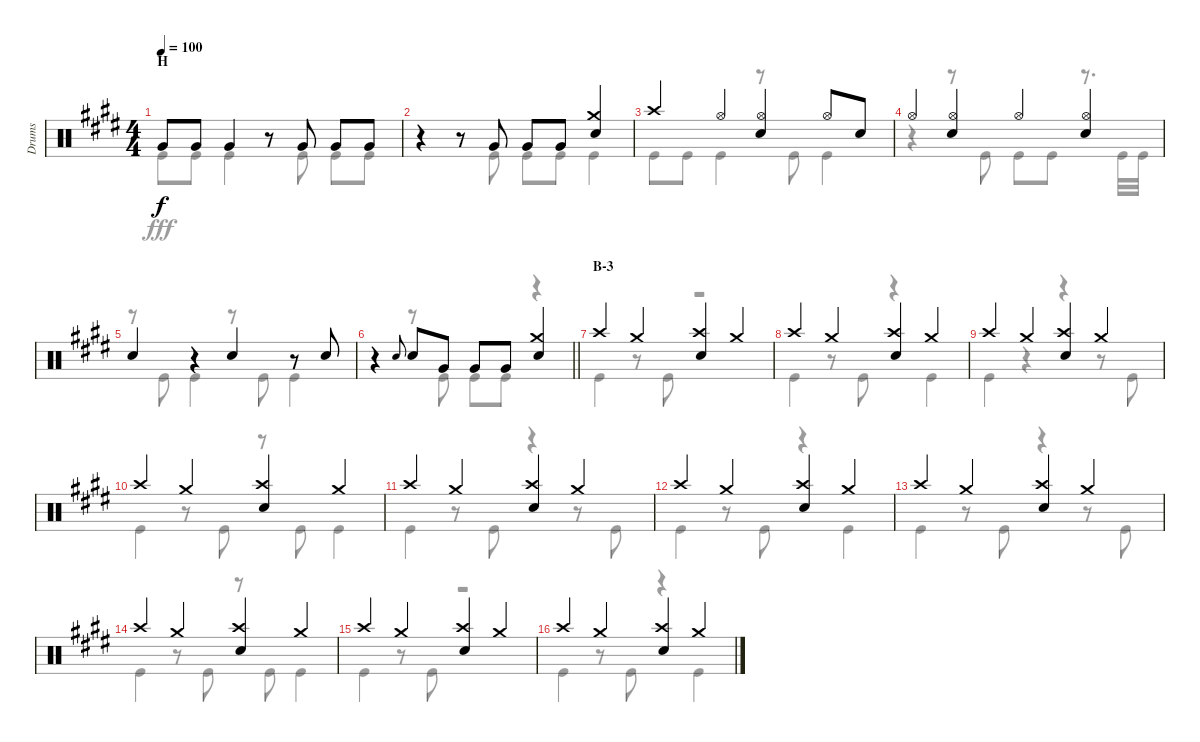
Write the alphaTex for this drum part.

\track ("Drums" "Drums") {instrument percussion}
\staff {score}
\articulation defaults
\voice
\ts (4 4)
\section ("" "H")
\tempo 100
\clef neutral
\ks e "Very Low Tom (hit)".8{dy f} "Very Low Tom (hit)".8 "Very Low Tom (hit)".4
r.8 "Very Low Tom (hit)".8 "Very Low Tom (hit)".8 "Very Low Tom (hit)".8 |
r.4 r.8 "Very Low Tom (hit)".8 "Very Low Tom (hit)".8 "Very Low Tom (hit)".8 ("Crash medium (hit)" "Snare (hit) 2").4 |
"Crash high (hit)".4 "Hi-Hat (open)".4 ("Hi-Hat (open)" "Snare (hit) 2").4 "Hi-Hat (open)".8 "Snare (hit) 2".8 |
"Hi-Hat (open)".4 ("Hi-Hat (open)" "Snare (hit) 2").4 "Hi-Hat (open)".4 ("Hi-Hat (open)" "Snare (hit) 2").4 |
"Snare (hit) 2".4 r.4 "Snare (hit) 2".4 r.8 "Snare (hit) 2".8 |
\barLineRight lightlight
r.4 "Snare (hit) 2".8{gr onbeat} "Snare (hit) 2".8 "Very Low Tom (hit)".8 "Very Low Tom (hit)".8 "Very Low Tom (hit)".8 ("Crash medium (hit)" "Snare (hit) 2").4 |
\section ("" "B-3")
"Crash high (hit)".4 "Crash medium (hit)".4 ("Crash high (hit)" "Snare (hit) 2").4 "Crash medium (hit)".4 |
"Crash high (hit)".4 "Crash medium (hit)".4 ("Crash high (hit)" "Snare (hit) 2").4 "Crash medium (hit)".4 |
"Crash high (hit)".4 "Crash medium (hit)".4 ("Crash high (hit)" "Snare (hit) 2").4 "Crash medium (hit)".4 |
"Crash high (hit)".4 "Crash medium (hit)".4 ("Crash high (hit)" "Snare (hit) 2").4 "Crash medium (hit)".4 |
"Crash high (hit)".4 "Crash medium (hit)".4 ("Crash high (hit)" "Snare (hit) 2").4 "Crash medium (hit)".4 |
"Crash high (hit)".4 "Crash medium (hit)".4 ("Crash high (hit)" "Snare (hit) 2").4 "Crash medium (hit)".4 |
"Crash high (hit)".4 "Crash medium (hit)".4 ("Crash high (hit)" "Snare (hit) 2").4 "Crash medium (hit)".4 |
"Crash high (hit)".4 "Crash medium (hit)".4 ("Crash high (hit)" "Snare (hit) 2").4 "Crash medium (hit)".4 |
"Crash high (hit)".4 "Crash medium (hit)".4 ("Crash high (hit)" "Snare (hit) 2").4 "Crash medium (hit)".4 |
"Crash high (hit)".4 "Crash medium (hit)".4 ("Crash high (hit)" "Snare (hit) 2").4 "Crash medium (hit)".4
\voice
\clef neutral
\ottava regular
\simile none
\ks e "Kick (hit)".8{dy fff} "Kick (hit)".8 "Kick (hit)".4
r.8 "Kick (hit)".8 "Kick (hit)".8 "Kick (hit)".8 |
r.4 r.8 "Kick (hit)".8 "Kick (hit)".8 "Kick (hit)".8 "Kick (hit)".4 |
"Kick (hit)".8 "Kick (hit)".8 "Kick (hit)".4 r.8 "Kick (hit)".8 "Kick (hit)".4 |
r.4 r.8 "Kick (hit)".8 "Kick (hit)".8 "Kick (hit)".8 r.8{d} "Kick (hit)".32 "Kick (hit)".32 |
r.8 "Kick (hit)".8 "Kick (hit)".4 r.8 "Kick (hit)".8 "Kick (hit)".4 |
\barLineRight lightlight
r.4 r.8 "Kick (hit)".8 "Kick (hit)".8 "Kick (hit)".8 r.4 |
"Kick (hit)".4 r.8 "Kick (hit)".8 r.2 |
"Kick (hit)".4 r.8 "Kick (hit)".8 r.4 "Kick (hit)".4 |
"Kick (hit)".4 r.4 r.4 r.8 "Kick (hit)".8 |
"Kick (hit)".4 r.8 "Kick (hit)".8 r.8 "Kick (hit)".8 "Kick (hit)".4 |
"Kick (hit)".4 r.8 "Kick (hit)".8 r.4 r.8 "Kick (hit)".8 |
"Kick (hit)".4 r.8 "Kick (hit)".8 r.4 "Kick (hit)".4 |
"Kick (hit)".4 r.8 "Kick (hit)".8 r.4 r.8 "Kick (hit)".8 |
"Kick (hit)".4 r.8 "Kick (hit)".8 r.8 "Kick (hit)".8 "Kick (hit)".4 |
"Kick (hit)".4 r.8 "Kick (hit)".8 r.2 |
"Kick (hit)".4 r.8 "Kick (hit)".8 r.4 "Kick (hit)".4
